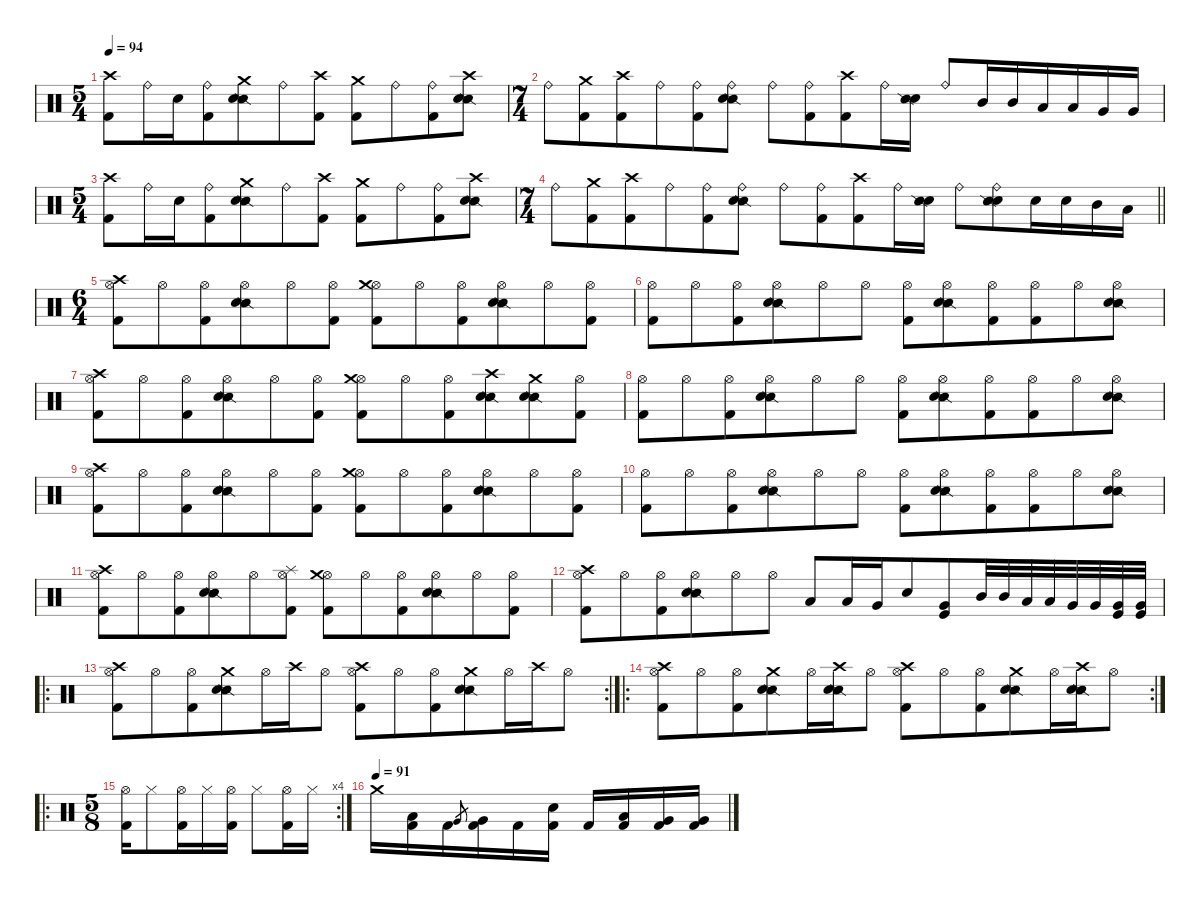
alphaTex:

\defaultSystemsLayout 4
\hideDynamics
\bracketExtendMode nobrackets
\singleTrackTrackNamePolicy hidden
\multiTrackTrackNamePolicy hidden
\firstSystemTrackNameMode fullname
\firstSystemTrackNameOrientation horizontal
\otherSystemsTrackNameOrientation horizontal
\track ("Drums" "drm.") {defaultSystemsLayout 4 instrument percussion}
\staff {score}
\articulation defaults
\ts (5 4)
\beaming (8 6 4)
\tempo 94
\clef neutral
\ks c
("Crash high (hit)" "Kick (hit) 2").8{dy fff beam Down} "Ride (bell)".16{dy f beam Down} "Snare (hit) 2".16{dy ff beam Down} ("Ride (bell)" "Kick (hit) 2").8{dy f beam Down} ("Crash medium (hit)" "Snare (side stick) 2" "Snare (hit) 2").8{dy fff beam Down} "Ride (bell)".8{dy f beam Down} ("Crash high (hit)" "Kick (hit) 2").8{dy fff beam Down} ("Crash medium (hit)" "Kick (hit) 2").8{beam Down} "Ride (bell)".8{dy f beam Down} ("Ride (bell)" "Kick (hit) 2").8{beam Down} ("Crash high (hit)" "Snare (side stick) 2" "Snare (hit) 2").8{dy fff beam Down} |
\ts (7 4)
\beaming (8 6 4 4)
"Ride (bell)".8{dy f beam Down} ("Crash medium (hit)" "Kick (hit) 2").8{dy fff beam Down} ("Crash high (hit)" "Kick (hit) 2").8{beam Down} "Ride (bell)".8{dy f beam Down} ("Ride (bell)" "Kick (hit) 2").8{beam Down} ("Ride (bell)" "Snare (side stick) 2" "Snare (hit) 2").8{beam Down} "Ride (bell)".8{beam Down} ("Ride (bell)" "Kick (hit) 2").8{beam Down} ("Crash high (hit)" "Kick (hit) 2").8{dy fff beam Down} "Ride (bell)".16{dy f beam Down} ("Snare (hit) 2" "Snare (side stick) 2").16{dy fff beam Down} "Ride (bell)".8{dy f beam Up} "Mid Tom (hit)".16{dy fff beam Up} "Mid Tom (hit)".16{beam Up} "Low Tom (hit)".16{beam Up} "Low Tom (hit)".16{beam Up} "Very Low Tom (hit)".16{dy f beam Up} "Very Low Tom (hit)".16{beam Up} |
\ts (5 4)
\beaming (8 6 4)
("Crash high (hit)" "Kick (hit) 2").8{dy fff beam Down} "Ride (bell)".16{dy f beam Down} "Snare (hit) 2".16{dy ff beam Down} ("Ride (bell)" "Kick (hit) 2").8{dy f beam Down} ("Crash medium (hit)" "Snare (side stick) 2" "Snare (hit) 2").8{dy fff beam Down} "Ride (bell)".8{dy f beam Down} ("Crash high (hit)" "Kick (hit) 2").8{dy fff beam Down} ("Crash medium (hit)" "Kick (hit) 2").8{beam Down} "Ride (bell)".8{dy f beam Down} ("Ride (bell)" "Kick (hit) 2").8{beam Down} ("Crash high (hit)" "Snare (side stick) 2" "Snare (hit) 2").8{dy fff beam Down} |
\ts (7 4)
\beaming (8 6 4 4)
\barLineRight lightlight "Ride (bell)".8{dy f beam Down}
("Crash medium (hit)" "Kick (hit) 2").8{dy fff beam Down} ("Crash high (hit)" "Kick (hit) 2").8{beam Down} "Ride (bell)".8{dy f beam Down} ("Ride (bell)" "Kick (hit) 2").8{beam Down} ("Ride (bell)" "Snare (side stick) 2" "Snare (hit) 2").8{beam Down} "Ride (bell)".8{beam Down} ("Ride (bell)" "Kick (hit) 2").8{beam Down} ("Crash high (hit)" "Kick (hit) 2").8{dy fff beam Down} "Ride (bell)".16{dy f beam Down} ("Snare (hit) 2" "Snare (side stick) 2").16{dy fff beam Down} "Ride (bell)".8{dy f beam Down} ("Ride (bell)" "Snare (hit) 2" "Snare (side stick) 2").8{beam Down} "Snare (hit) 2".16{dy fff beam Down} "Snare (hit) 2".16{beam Down} "Mid Tom (hit)".16{beam Down} "Low Tom (hit)".16{beam Down} |
\ts (6 4)
\beaming (8 6 6)
("Hi-Hat (open)" "Crash high (hit)" "Kick (hit) 2").8{dy ff beam Down} "Hi-Hat (open)".8{beam Down} ("Hi-Hat (open)" "Kick (hit) 2").8{beam Down} ("Hi-Hat (open)" "Snare (side stick) 2" "Snare (hit) 2").8{beam Down} "Hi-Hat (open)".8{beam Down} ("Hi-Hat (open)" "Kick (hit) 2").8{beam Down} ("Hi-Hat (open)" "Crash medium (hit)" "Kick (hit) 2").8{beam Down} "Hi-Hat (open)".8{beam Down} ("Hi-Hat (open)" "Kick (hit) 2").8{beam Down} ("Hi-Hat (open)" "Snare (side stick) 2" "Snare (hit) 2").8{beam Down} "Hi-Hat (open)".8{beam Down} ("Hi-Hat (open)" "Kick (hit) 2").8{beam Down} |
("Hi-Hat (open)" "Kick (hit) 2").8{beam Down} "Hi-Hat (open)".8{beam Down} ("Hi-Hat (open)" "Kick (hit) 2").8{beam Down} ("Hi-Hat (open)" "Snare (side stick) 2" "Snare (hit) 2").8{beam Down} "Hi-Hat (open)".8{beam Down} "Hi-Hat (open)".8{beam Down} ("Hi-Hat (open)" "Kick (hit) 2").8{beam Down} ("Hi-Hat (open)" "Snare (side stick) 2" "Snare (hit) 2").8{beam Down} ("Hi-Hat (open)" "Kick (hit) 2").8{beam Down} ("Hi-Hat (open)" "Kick (hit) 2").8{beam Down} "Hi-Hat (open)".8{beam Down} ("Hi-Hat (open)" "Snare (side stick) 2" "Snare (hit) 2").8{beam Down} |
("Hi-Hat (open)" "Crash high (hit)" "Kick (hit) 2").8{beam Down} "Hi-Hat (open)".8{beam Down} ("Hi-Hat (open)" "Kick (hit) 2").8{beam Down} ("Hi-Hat (open)" "Snare (side stick) 2" "Snare (hit) 2").8{beam Down} "Hi-Hat (open)".8{beam Down} ("Hi-Hat (open)" "Kick (hit) 2").8{beam Down} ("Hi-Hat (open)" "Crash medium (hit)" "Kick (hit) 2").8{beam Down} "Hi-Hat (open)".8{beam Down} ("Hi-Hat (open)" "Kick (hit) 2").8{beam Down} ("Crash high (hit)" "Snare (side stick) 2" "Snare (hit) 2").8{dy fff beam Down} ("Crash medium (hit)" "Snare (side stick) 2" "Snare (hit) 2").8{beam Down} ("Hi-Hat (open)" "Kick (hit) 2").8{dy ff beam Down} |
("Hi-Hat (open)" "Kick (hit) 2").8{beam Down} "Hi-Hat (open)".8{beam Down} ("Hi-Hat (open)" "Kick (hit) 2").8{beam Down} ("Hi-Hat (open)" "Snare (side stick) 2" "Snare (hit) 2").8{beam Down} "Hi-Hat (open)".8{beam Down} "Hi-Hat (open)".8{beam Down} ("Hi-Hat (open)" "Kick (hit) 2").8{beam Down} ("Hi-Hat (open)" "Snare (side stick) 2" "Snare (hit) 2").8{beam Down} ("Hi-Hat (open)" "Kick (hit) 2").8{beam Down} ("Hi-Hat (open)" "Kick (hit) 2").8{beam Down} "Hi-Hat (open)".8{beam Down} ("Hi-Hat (open)" "Snare (side stick) 2" "Snare (hit) 2").8{beam Down} |
("Hi-Hat (open)" "Crash high (hit)" "Kick (hit) 2").8{beam Down} "Hi-Hat (open)".8{beam Down} ("Hi-Hat (open)" "Kick (hit) 2").8{beam Down} ("Hi-Hat (open)" "Snare (side stick) 2" "Snare (hit) 2").8{beam Down} "Hi-Hat (open)".8{beam Down} ("Hi-Hat (open)" "Kick (hit) 2").8{beam Down} ("Hi-Hat (open)" "Crash medium (hit)" "Kick (hit) 2").8{beam Down} "Hi-Hat (open)".8{beam Down} ("Hi-Hat (open)" "Kick (hit) 2").8{beam Down} ("Hi-Hat (open)" "Snare (side stick) 2" "Snare (hit) 2").8{beam Down} "Hi-Hat (open)".8{beam Down} ("Hi-Hat (open)" "Kick (hit) 2").8{beam Down} |
("Hi-Hat (open)" "Kick (hit) 2").8{beam Down} "Hi-Hat (open)".8{beam Down} ("Hi-Hat (open)" "Kick (hit) 2").8{beam Down} ("Hi-Hat (open)" "Snare (side stick) 2" "Snare (hit) 2").8{beam Down} "Hi-Hat (open)".8{beam Down} "Hi-Hat (open)".8{beam Down} ("Hi-Hat (open)" "Kick (hit) 2").8{beam Down} ("Hi-Hat (open)" "Snare (side stick) 2" "Snare (hit) 2").8{beam Down} ("Hi-Hat (open)" "Kick (hit) 2").8{beam Down} ("Hi-Hat (open)" "Kick (hit) 2").8{beam Down} "Hi-Hat (open)".8{beam Down} ("Hi-Hat (open)" "Snare (side stick) 2" "Snare (hit) 2").8{beam Down} |
("Hi-Hat (open)" "Crash high (hit)" "Kick (hit) 2").8{beam Down} "Hi-Hat (open)".8{beam Down} ("Hi-Hat (open)" "Kick (hit) 2").8{beam Down} ("Hi-Hat (open)" "Snare (side stick) 2" "Snare (hit) 2").8{beam Down} "Hi-Hat (open)".8{beam Down} ("Hi-Hat (open)" "Splash (hit)" "Kick (hit) 2").8{beam Down} ("Hi-Hat (open)" "Crash medium (hit)" "Kick (hit) 2").8{beam Down} "Hi-Hat (open)".8{beam Down} ("Hi-Hat (open)" "Kick (hit) 2").8{beam Down} ("Hi-Hat (open)" "Snare (side stick) 2" "Snare (hit) 2").8{beam Down} "Hi-Hat (open)".8{beam Down} ("Hi-Hat (open)" "Kick (hit) 2").8{beam Down} |
("Hi-Hat (open)" "Crash high (hit)" "Kick (hit) 2").8{beam Down} "Hi-Hat (open)".8{beam Down} ("Hi-Hat (open)" "Kick (hit) 2").8{beam Down} ("Hi-Hat (open)" "Snare (side stick) 2" "Snare (hit) 2").8{beam Down} "Hi-Hat (open)".8{beam Down} "Hi-Hat (open)".8{beam Down} "Low Tom (hit)".8{beam Up} "Low Tom (hit)".16{beam Up} "Very Low Tom (hit)".16{dy mf beam Up} "Snare (hit) 2".8{dy fff beam Up} ("Very Low Tom (hit)" "Kick (hit)").8{dy f beam Up} "Mid Tom (hit)".32{beam Up} "Mid Tom (hit)".32{beam Up} "Low Tom (hit)".32{beam Up} "Low Tom (hit)".32{beam Up} "Very Low Tom (hit)".32{beam Up} "Very Low Tom (hit)".32{beam Up} ("Very Low Tom (hit)" "Kick (hit)").32{beam Up} ("Very Low Tom (hit)" "Kick (hit)").32{beam Up} |
\ro
\rc 2
("Hi-Hat (open)" "Crash high (hit)" "Kick (hit) 2").8{dy ff beam Down} "Hi-Hat (open)".8{beam Down} ("Hi-Hat (open)" "Kick (hit) 2").8{beam Down} ("Crash medium (hit)" "Snare (side stick) 2" "Snare (hit) 2").8{dy fff beam Down} "Hi-Hat (open)".16{dy ff beam Down} "Crash high (hit)".16{dy fff beam Down} "Hi-Hat (open)".8{dy ff beam Down} ("Hi-Hat (open)" "Crash high (hit)" "Kick (hit) 2").8{beam Down} "Hi-Hat (open)".8{beam Down} ("Hi-Hat (open)" "Kick (hit) 2").8{beam Down} ("Crash medium (hit)" "Snare (side stick) 2" "Snare (hit) 2").8{dy fff beam Down} "Hi-Hat (open)".16{dy ff beam Down} "Crash high (hit)".16{dy fff beam Down} "Hi-Hat (open)".8{dy ff beam Down} |
\ro
\rc 2
("Hi-Hat (open)" "Crash high (hit)" "Kick (hit) 2").8{beam Down} "Hi-Hat (open)".8{beam Down} ("Hi-Hat (open)" "Kick (hit) 2").8{beam Down} ("Crash medium (hit)" "Snare (side stick) 2" "Snare (hit) 2").8{dy fff beam Down} "Hi-Hat (open)".16{dy ff beam Down} ("Crash high (hit)" "Snare (side stick) 2" "Snare (hit) 2").16{dy fff beam Down} "Hi-Hat (open)".8{dy ff beam Down} ("Hi-Hat (open)" "Crash high (hit)" "Kick (hit) 2").8{beam Down} "Hi-Hat (open)".8{beam Down} ("Hi-Hat (open)" "Kick (hit) 2").8{beam Down} ("Crash medium (hit)" "Snare (side stick) 2" "Snare (hit) 2").8{dy fff beam Down} "Hi-Hat (open)".16{dy ff beam Down} ("Crash high (hit)" "Snare (side stick) 2" "Snare (hit) 2").16{dy fff beam Down} "Hi-Hat (open)".8{dy ff beam Down} |
\ro
\rc 4
\ts (5 8)
\beaming (8 3 2)
("Hi-Hat (open)" "Kick (hit) 2").16{dy fff beam Down} "Hi-Hat (closed)".8{dy f beam Down} ("Hi-Hat (open)" "Kick (hit) 2").16{dy fff beam Down} "Hi-Hat (closed)".16{dy f beam Down} ("Hi-Hat (open)" "Kick (hit) 2").16{beam Down} "Hi-Hat (closed)".8{beam Down} ("Hi-Hat (open)" "Kick (hit) 2").16{dy fff beam Down} "Hi-Hat (closed)".16{dy f beam Down} |
\tempo (91)
"Crash medium (hit)".16{dy fff beam Down} ("Low Tom (hit)" "Kick (hit) 2").16{dy ff beam Down} "Kick (hit) 2".16{dy f beam Down} "Very Low Tom (hit)".8{gr dy p beam Up} ("Very Low Tom (hit)" "Kick (hit) 2").16{dy f beam Down} "Kick (hit) 2".16{beam Down} ("Snare (hit) 2" "Kick (hit) 2").16{dy fff beam Down} "Kick (hit) 2".16{dy f beam Up} ("Low Tom (hit)" "Kick (hit) 2").16{dy ff beam Up} ("Very Low Tom (hit)" "Kick (hit) 2").16{dy f beam Up} ("Kick (hit) 2" "Very Low Tom (hit)").16{dy mf beam Up}
